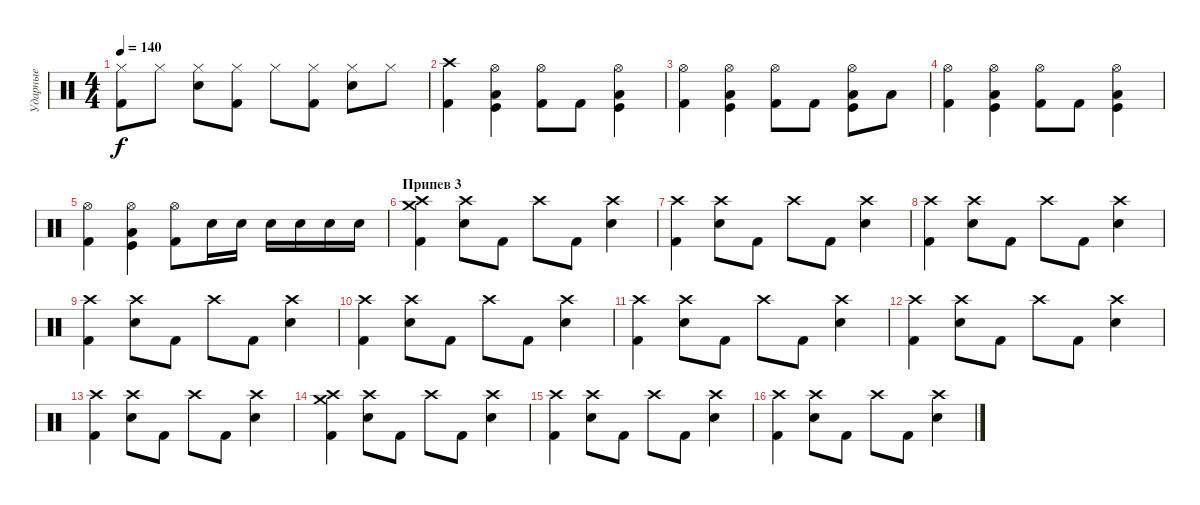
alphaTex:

\track ("Ударные" "Ударные") {instrument percussion}
\staff {score}
\articulation defaults
\ts (4 4)
\tempo 140
\clef neutral
\ks c
("Hi-Hat (closed)" "Kick (hit) 2").8{dy f} "Hi-Hat (closed)".8 ("Hi-Hat (closed)" "Electric Snare (hit)").8 ("Hi-Hat (closed)" "Kick (hit) 2").8 "Hi-Hat (closed)".8 ("Hi-Hat (closed)" "Kick (hit) 2").8 ("Hi-Hat (closed)" "Electric Snare (hit)").8 "Hi-Hat (closed)".8 |
("Crash high (hit)" "Kick (hit) 2").4 ("Hi-Hat (open)" "Kick (hit)" "Low Tom (hit)").4 ("Hi-Hat (open)" "Kick (hit) 2").8 "Kick (hit) 2".8 ("Hi-Hat (open)" "Kick (hit)" "Low Tom (hit)").4 |
("Hi-Hat (open)" "Kick (hit) 2").4 ("Hi-Hat (open)" "Low Tom (hit)" "Kick (hit)").4 ("Hi-Hat (open)" "Kick (hit) 2").8 "Kick (hit) 2".8 ("Hi-Hat (open)" "Low Tom (hit)" "Kick (hit)").8 "Low Tom (hit)".8 |
("Hi-Hat (open)" "Kick (hit) 2").4 ("Hi-Hat (open)" "Low Tom (hit)" "Kick (hit)").4 ("Hi-Hat (open)" "Kick (hit) 2").8 "Kick (hit) 2".8 ("Hi-Hat (open)" "Low Tom (hit)" "Kick (hit)").4 |
("Hi-Hat (open)" "Kick (hit) 2").4 ("Hi-Hat (open)" "Low Tom (hit)" "Kick (hit)").4 ("Hi-Hat (open)" "Kick (hit) 2").8 "Electric Snare (hit)".16 "Electric Snare (hit)".16 "Electric Snare (hit)".16 "Electric Snare (hit)".16 "Electric Snare (hit)".16 "Electric Snare (hit)".16 |
\section ("" "Припев 3")
("Crash high (hit)" "Crash medium (hit)" "Kick (hit) 2").4 ("Crash high (hit)" "Electric Snare (hit)").8 "Kick (hit) 2".8 "Crash high (hit)".8 "Kick (hit) 2".8 ("Crash high (hit)" "Electric Snare (hit)").4 |
("Crash high (hit)" "Kick (hit) 2").4 ("Crash high (hit)" "Electric Snare (hit)").8 "Kick (hit) 2".8 "Crash high (hit)".8 "Kick (hit) 2".8 ("Crash high (hit)" "Electric Snare (hit)").4 |
("Crash high (hit)" "Kick (hit) 2").4 ("Crash high (hit)" "Electric Snare (hit)").8 "Kick (hit) 2".8 "Crash high (hit)".8 "Kick (hit) 2".8 ("Crash high (hit)" "Electric Snare (hit)").4 |
("Crash high (hit)" "Kick (hit) 2").4 ("Crash high (hit)" "Electric Snare (hit)").8 "Kick (hit) 2".8 "Crash high (hit)".8 "Kick (hit) 2".8 ("Crash high (hit)" "Electric Snare (hit)").4 |
("Crash high (hit)" "Kick (hit) 2").4 ("Crash high (hit)" "Electric Snare (hit)").8 "Kick (hit) 2".8 "Crash high (hit)".8 "Kick (hit) 2".8 ("Crash high (hit)" "Electric Snare (hit)").4 |
("Crash high (hit)" "Kick (hit) 2").4 ("Crash high (hit)" "Electric Snare (hit)").8 "Kick (hit) 2".8 "Crash high (hit)".8 "Kick (hit) 2".8 ("Crash high (hit)" "Electric Snare (hit)").4 |
("Crash high (hit)" "Kick (hit) 2").4 ("Crash high (hit)" "Electric Snare (hit)").8 "Kick (hit) 2".8 "Crash high (hit)".8 "Kick (hit) 2".8 ("Crash high (hit)" "Electric Snare (hit)").4 |
("Crash high (hit)" "Kick (hit) 2").4 ("Crash high (hit)" "Electric Snare (hit)").8 "Kick (hit) 2".8 "Crash high (hit)".8 "Kick (hit) 2".8 ("Crash high (hit)" "Electric Snare (hit)").4 |
("Crash high (hit)" "Crash medium (hit)" "Kick (hit) 2").4 ("Crash high (hit)" "Electric Snare (hit)").8 "Kick (hit) 2".8 "Crash high (hit)".8 "Kick (hit) 2".8 ("Crash high (hit)" "Electric Snare (hit)").4 |
("Crash high (hit)" "Kick (hit) 2").4 ("Crash high (hit)" "Electric Snare (hit)").8 "Kick (hit) 2".8 "Crash high (hit)".8 "Kick (hit) 2".8 ("Crash high (hit)" "Electric Snare (hit)").4 |
("Crash high (hit)" "Kick (hit) 2").4 ("Crash high (hit)" "Electric Snare (hit)").8 "Kick (hit) 2".8 "Crash high (hit)".8 "Kick (hit) 2".8 ("Crash high (hit)" "Electric Snare (hit)").4
